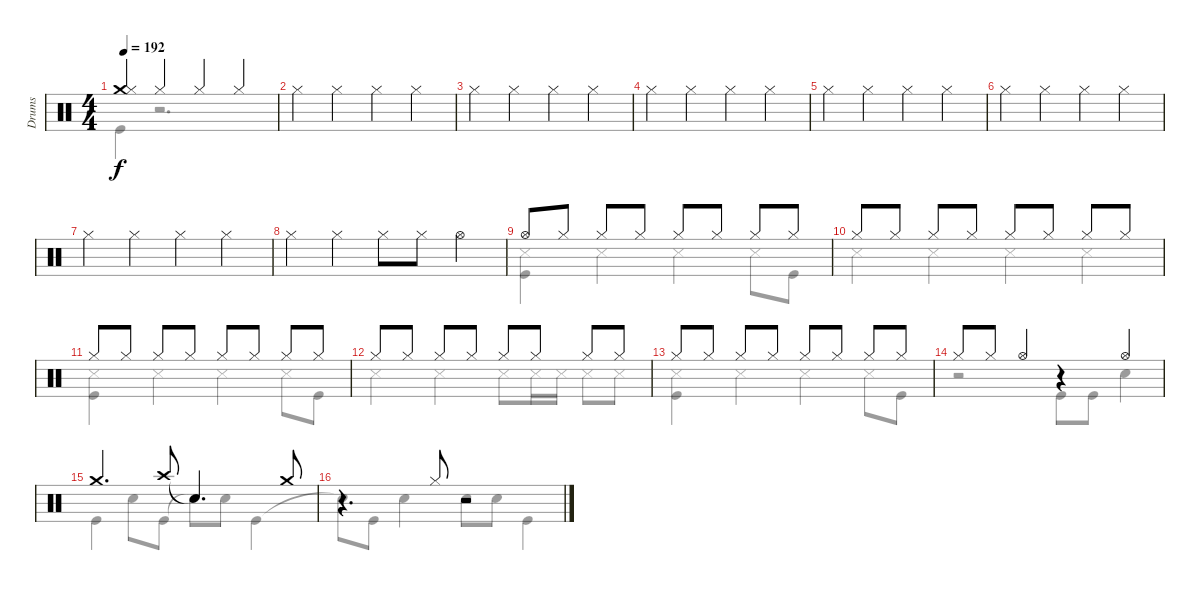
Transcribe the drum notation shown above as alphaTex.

\track ("Drums" "Drums") {instrument percussion}
\staff {score}
\articulation defaults
\voice
\ts (4 4)
\tempo 192
\clef neutral
\ks c
("Crash medium (hit)" "Hi-Hat (closed)").4{dy f} "Hi-Hat (closed)".4 "Hi-Hat (closed)".4 "Hi-Hat (closed)".4 |
"Hi-Hat (closed)".4 "Hi-Hat (closed)".4 "Hi-Hat (closed)".4 "Hi-Hat (closed)".4 |
"Hi-Hat (closed)".4 "Hi-Hat (closed)".4 "Hi-Hat (closed)".4 "Hi-Hat (closed)".4 |
"Hi-Hat (closed)".4 "Hi-Hat (closed)".4 "Hi-Hat (closed)".4 "Hi-Hat (closed)".4 |
"Hi-Hat (closed)".4 "Hi-Hat (closed)".4 "Hi-Hat (closed)".4 "Hi-Hat (closed)".4 |
"Hi-Hat (closed)".4 "Hi-Hat (closed)".4 "Hi-Hat (closed)".4 "Hi-Hat (closed)".4 |
"Hi-Hat (closed)".4 "Hi-Hat (closed)".4 "Hi-Hat (closed)".4 "Hi-Hat (closed)".4 |
"Hi-Hat (closed)".4 "Hi-Hat (closed)".4 "Hi-Hat (closed)".8 "Hi-Hat (closed)".8 "Hi-Hat (open)".4 |
"Hi-Hat (open)".8 "Hi-Hat (closed)".8 "Hi-Hat (closed)".8 "Hi-Hat (closed)".8 "Hi-Hat (closed)".8 "Hi-Hat (closed)".8 "Hi-Hat (closed)".8 "Hi-Hat (closed)".8 |
"Hi-Hat (closed)".8 "Hi-Hat (closed)".8 "Hi-Hat (closed)".8 "Hi-Hat (closed)".8 "Hi-Hat (closed)".8 "Hi-Hat (closed)".8 "Hi-Hat (closed)".8 "Hi-Hat (closed)".8 |
"Hi-Hat (closed)".8 "Hi-Hat (closed)".8 "Hi-Hat (closed)".8 "Hi-Hat (closed)".8 "Hi-Hat (closed)".8 "Hi-Hat (closed)".8 "Hi-Hat (closed)".8 "Hi-Hat (closed)".8 |
"Hi-Hat (closed)".8 "Hi-Hat (closed)".8 "Hi-Hat (closed)".8 "Hi-Hat (closed)".8 "Hi-Hat (closed)".8 "Hi-Hat (closed)".8 "Hi-Hat (closed)".8 "Hi-Hat (closed)".8 |
"Hi-Hat (closed)".8 "Hi-Hat (closed)".8 "Hi-Hat (closed)".8 "Hi-Hat (closed)".8 "Hi-Hat (closed)".8 "Hi-Hat (closed)".8 "Hi-Hat (closed)".8 "Hi-Hat (closed)".8 |
"Hi-Hat (closed)".8 "Hi-Hat (closed)".8 "Hi-Hat (open)".4 r.4 "Hi-Hat (open)".4 |
"Crash medium (hit)".4{d} "Crash high (hit)".8 "Snare (hit)"{t}.4{d} "Crash medium (hit)".8 |
r.4{d} "Hi-Hat (closed)".8 r.2
\voice
\clef neutral
\ottava regular
\simile none
\ks c "Kick (hit)".4{dy f}
r.2{d} |
|
|
|
|
|
|
|
("Snare (side stick) 3" "Kick (hit)").4 "Snare (side stick) 3".4 "Snare (side stick) 3".4 "Snare (side stick) 3".8 "Kick (hit)".8 |
"Snare (side stick) 3".4 "Snare (side stick) 3".4 "Snare (side stick) 3".4 "Snare (side stick) 3".4 |
("Snare (side stick) 3" "Kick (hit)").4 "Snare (side stick) 3".4 "Snare (side stick) 3".4 "Snare (side stick) 3".8 "Kick (hit)".8 |
"Snare (side stick) 3".4 "Snare (side stick) 3".4 "Snare (side stick) 3".8 "Snare (side stick) 3".16 "Snare (side stick) 3".16 "Snare (side stick) 3".8 "Snare (side stick) 3".8 |
("Snare (side stick) 3" "Kick (hit)").4 "Snare (side stick) 3".4 "Snare (side stick) 3".4 "Snare (side stick) 3".8 "Kick (hit)".8 |
r.2 "Kick (hit)".8 "Kick (hit)".8 "Snare (hit) 2".4 |
"Kick (hit)".4 "Snare (hit) 2".8 "Kick (hit)".8 "Snare (hit)"{t}.8 "Snare (hit) 2".8 "Kick (hit)".4 |
"Snare (hit)"{t}.8 "Kick (hit)".8 "Snare (hit) 2".4 "Snare (hit) 2".8 "Snare (hit) 2".8 "Kick (hit)".4
